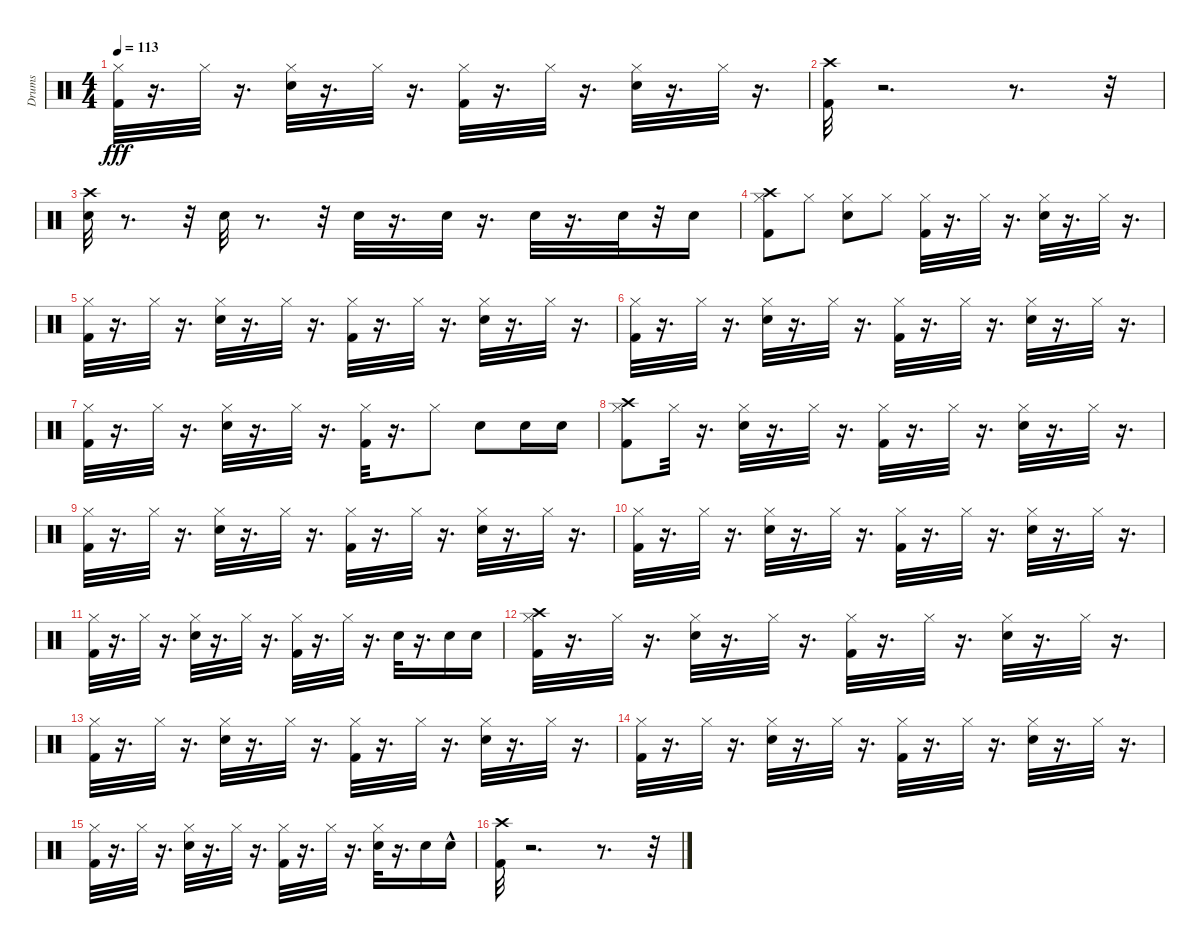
\track ("Drums" "Drums") {instrument percussion}
\staff {score}
\articulation defaults
\ts (4 4)
\tempo 113
\clef neutral
\ks c
("Kick (hit) 2" "Hi-Hat (closed)").32{dy fff} r.16{d} "Hi-Hat (closed)".32 r.16{d} ("Snare (hit) 2" "Hi-Hat (closed)").32 r.16{d} "Hi-Hat (closed)".32 r.16{d} ("Kick (hit) 2" "Hi-Hat (closed)").32 r.16{d} "Hi-Hat (closed)".32 r.16{d} ("Snare (hit) 2" "Hi-Hat (closed)").32 r.16{d} "Hi-Hat (closed)".32 r.16{d} |
("Kick (hit) 2" "Crash high (hit)").32 r.2{d} r.8{d} r.32 |
("Snare (hit) 2" "Crash high (hit)").32 r.8{d} r.32 "Snare (hit) 2".32 r.8{d} r.32 "Snare (hit) 2".32 r.16{d} "Snare (hit) 2".32 r.16{d} "Snare (hit) 2".32 r.16{d} "Snare (hit) 2".32 r.32 "Snare (hit) 2".16 |
("Kick (hit) 2" "Hi-Hat (closed)" "Crash high (hit)").8 "Hi-Hat (closed)".8 ("Snare (hit) 2" "Hi-Hat (closed)").8 "Hi-Hat (closed)".8 ("Kick (hit) 2" "Hi-Hat (closed)").32 r.16{d} "Hi-Hat (closed)".32 r.16{d} ("Snare (hit) 2" "Hi-Hat (closed)").32 r.16{d} "Hi-Hat (closed)".32 r.16{d} |
("Kick (hit) 2" "Hi-Hat (closed)").32 r.16{d} "Hi-Hat (closed)".32 r.16{d} ("Snare (hit) 2" "Hi-Hat (closed)").32 r.16{d} "Hi-Hat (closed)".32 r.16{d} ("Kick (hit) 2" "Hi-Hat (closed)").32 r.16{d} "Hi-Hat (closed)".32 r.16{d} ("Snare (hit) 2" "Hi-Hat (closed)").32 r.16{d} "Hi-Hat (closed)".32 r.16{d} |
("Kick (hit) 2" "Hi-Hat (closed)").32 r.16{d} "Hi-Hat (closed)".32 r.16{d} ("Snare (hit) 2" "Hi-Hat (closed)").32 r.16{d} "Hi-Hat (closed)".32 r.16{d} ("Kick (hit) 2" "Hi-Hat (closed)").32 r.16{d} "Hi-Hat (closed)".32 r.16{d} ("Snare (hit) 2" "Hi-Hat (closed)").32 r.16{d} "Hi-Hat (closed)".32 r.16{d} |
("Kick (hit) 2" "Hi-Hat (closed)").32 r.16{d} "Hi-Hat (closed)".32 r.16{d} ("Snare (hit) 2" "Hi-Hat (closed)").32 r.16{d} "Hi-Hat (closed)".32 r.16{d} ("Kick (hit) 2" "Hi-Hat (closed)").32 r.16{d} "Hi-Hat (closed)".8 "Snare (hit) 2".8 "Snare (hit) 2".16 "Snare (hit) 2".16 |
("Kick (hit) 2" "Hi-Hat (closed)" "Crash high (hit)").8 "Hi-Hat (closed)".32 r.16{d} ("Snare (hit) 2" "Hi-Hat (closed)").32 r.16{d} "Hi-Hat (closed)".32 r.16{d} ("Kick (hit) 2" "Hi-Hat (closed)").32 r.16{d} "Hi-Hat (closed)".32 r.16{d} ("Snare (hit) 2" "Hi-Hat (closed)").32 r.16{d} "Hi-Hat (closed)".32 r.16{d} |
("Kick (hit) 2" "Hi-Hat (closed)").32 r.16{d} "Hi-Hat (closed)".32 r.16{d} ("Snare (hit) 2" "Hi-Hat (closed)").32 r.16{d} "Hi-Hat (closed)".32 r.16{d} ("Kick (hit) 2" "Hi-Hat (closed)").32 r.16{d} "Hi-Hat (closed)".32 r.16{d} ("Snare (hit) 2" "Hi-Hat (closed)").32 r.16{d} "Hi-Hat (closed)".32 r.16{d} |
("Kick (hit) 2" "Hi-Hat (closed)").32 r.16{d} "Hi-Hat (closed)".32 r.16{d} ("Snare (hit) 2" "Hi-Hat (closed)").32 r.16{d} "Hi-Hat (closed)".32 r.16{d} ("Kick (hit) 2" "Hi-Hat (closed)").32 r.16{d} "Hi-Hat (closed)".32 r.16{d} ("Snare (hit) 2" "Hi-Hat (closed)").32 r.16{d} "Hi-Hat (closed)".32 r.16{d} |
("Kick (hit) 2" "Hi-Hat (closed)").32 r.16{d} "Hi-Hat (closed)".32 r.16{d} ("Snare (hit) 2" "Hi-Hat (closed)").32 r.16{d} "Hi-Hat (closed)".32 r.16{d} ("Kick (hit) 2" "Hi-Hat (closed)").32 r.16{d} "Hi-Hat (closed)".32 r.16{d} "Snare (hit) 2".32 r.16{d} "Snare (hit) 2".16 "Snare (hit) 2".16 |
("Kick (hit) 2" "Hi-Hat (closed)" "Crash high (hit)").32 r.16{d} "Hi-Hat (closed)".32 r.16{d} ("Snare (hit) 2" "Hi-Hat (closed)").32 r.16{d} "Hi-Hat (closed)".32 r.16{d} ("Kick (hit) 2" "Hi-Hat (closed)").32 r.16{d} "Hi-Hat (closed)".32 r.16{d} ("Snare (hit) 2" "Hi-Hat (closed)").32 r.16{d} "Hi-Hat (closed)".32 r.16{d} |
("Kick (hit) 2" "Hi-Hat (closed)").32 r.16{d} "Hi-Hat (closed)".32 r.16{d} ("Snare (hit) 2" "Hi-Hat (closed)").32 r.16{d} "Hi-Hat (closed)".32 r.16{d} ("Kick (hit) 2" "Hi-Hat (closed)").32 r.16{d} "Hi-Hat (closed)".32 r.16{d} ("Snare (hit) 2" "Hi-Hat (closed)").32 r.16{d} "Hi-Hat (closed)".32 r.16{d} |
("Kick (hit) 2" "Hi-Hat (closed)").32 r.16{d} "Hi-Hat (closed)".32 r.16{d} ("Snare (hit) 2" "Hi-Hat (closed)").32 r.16{d} "Hi-Hat (closed)".32 r.16{d} ("Kick (hit) 2" "Hi-Hat (closed)").32 r.16{d} "Hi-Hat (closed)".32 r.16{d} ("Snare (hit) 2" "Hi-Hat (closed)").32 r.16{d} "Hi-Hat (closed)".32 r.16{d} |
("Kick (hit) 2" "Hi-Hat (closed)").32 r.16{d} "Hi-Hat (closed)".32 r.16{d} ("Snare (hit) 2" "Hi-Hat (closed)").32 r.16{d} "Hi-Hat (closed)".32 r.16{d} ("Kick (hit) 2" "Hi-Hat (closed)").32 r.16{d} "Hi-Hat (closed)".32 r.16{d} ("Snare (hit) 2" "Hi-Hat (closed)").32 r.16{d} "Snare (hit) 2".16 "Snare (hit) 2"{hac}.16 |
("Kick (hit) 2" "Crash high (hit)").32 r.2{d} r.8{d} r.32
